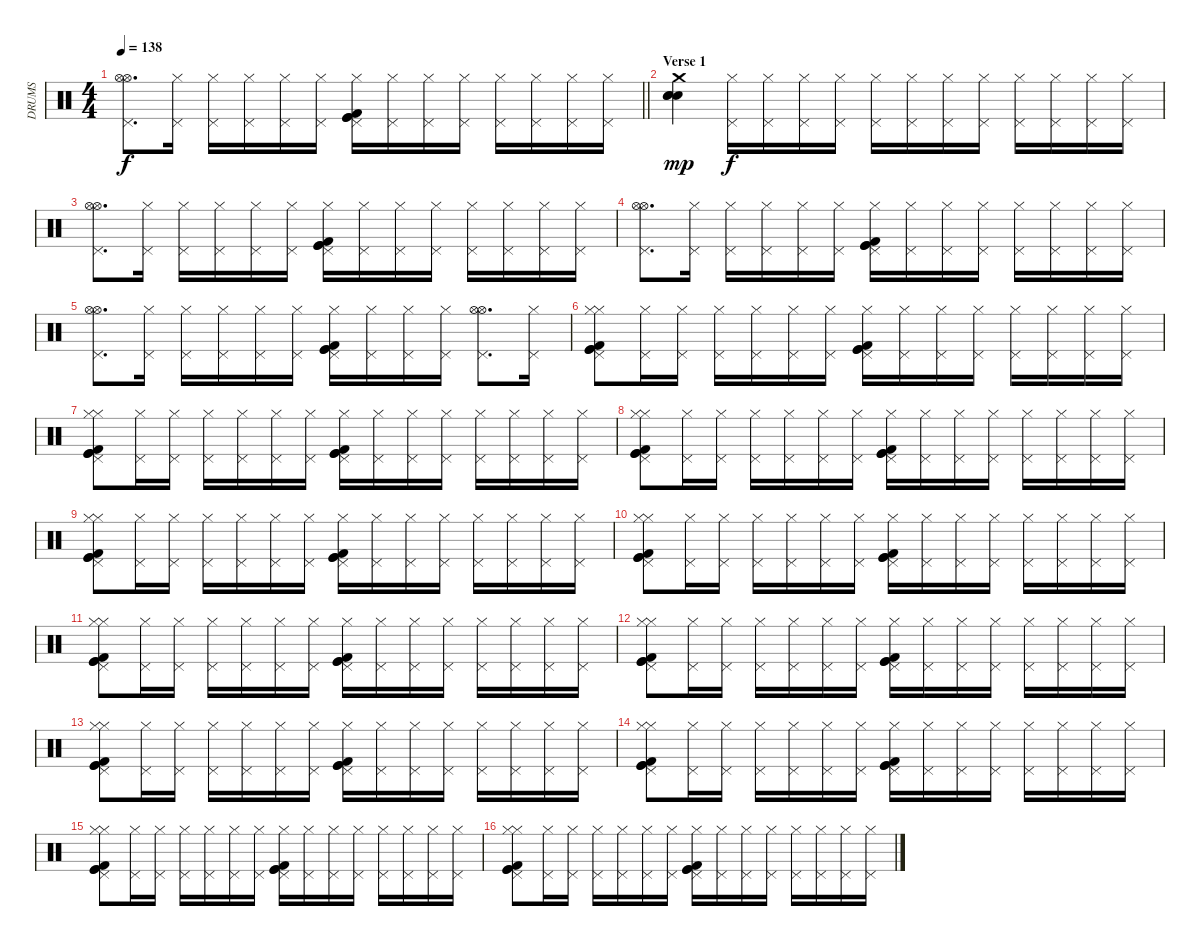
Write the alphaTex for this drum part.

\track ("DRUMS" "DRUMS") {instrument percussion}
\staff {score}
\articulation defaults
\ts (4 4)
\tempo 138
\clef neutral
\barLineRight lightlight
\ks c
("Hi-Hat (open)" "Pedal Hi-Hat (hit)" "Hi-Hat (open)").8{d dy f} ("Hi-Hat (closed)" "Pedal Hi-Hat (hit)").16 ("Hi-Hat (closed)" "Pedal Hi-Hat (hit)").16 ("Hi-Hat (closed)" "Pedal Hi-Hat (hit)").16 ("Hi-Hat (closed)" "Pedal Hi-Hat (hit)").16 ("Hi-Hat (closed)" "Pedal Hi-Hat (hit)").16 ("Hi-Hat (closed)" "Pedal Hi-Hat (hit)" "Kick (hit) 2" "Kick (hit)" "Kick (hit)").16 ("Hi-Hat (closed)" "Pedal Hi-Hat (hit)").16 ("Hi-Hat (closed)" "Pedal Hi-Hat (hit)").16 ("Hi-Hat (closed)" "Pedal Hi-Hat (hit)").16 ("Hi-Hat (closed)" "Pedal Hi-Hat (hit)").16 ("Hi-Hat (closed)" "Pedal Hi-Hat (hit)").16 ("Hi-Hat (closed)" "Pedal Hi-Hat (hit)").16 ("Hi-Hat (closed)" "Pedal Hi-Hat (hit)").16 |
\section ("" "Verse 1")
("Electric Snare (hit)" "Snare (hit) 2" "Snare (hit) 2" "Crash medium (hit)").4{dy mp volume 5} ("Hi-Hat (closed)" "Pedal Hi-Hat (hit)").16{dy f} ("Hi-Hat (closed)" "Pedal Hi-Hat (hit)").16 ("Hi-Hat (closed)" "Pedal Hi-Hat (hit)").16 ("Hi-Hat (closed)" "Pedal Hi-Hat (hit)").16 ("Hi-Hat (closed)" "Pedal Hi-Hat (hit)").16 ("Hi-Hat (closed)" "Pedal Hi-Hat (hit)").16 ("Hi-Hat (closed)" "Pedal Hi-Hat (hit)").16 ("Hi-Hat (closed)" "Pedal Hi-Hat (hit)").16 ("Hi-Hat (closed)" "Pedal Hi-Hat (hit)").16 ("Hi-Hat (closed)" "Pedal Hi-Hat (hit)").16 ("Hi-Hat (closed)" "Pedal Hi-Hat (hit)").16 ("Hi-Hat (closed)" "Pedal Hi-Hat (hit)").16 |
("Hi-Hat (open)" "Pedal Hi-Hat (hit)" "Hi-Hat (open)").8{d} ("Hi-Hat (closed)" "Pedal Hi-Hat (hit)").16 ("Hi-Hat (closed)" "Pedal Hi-Hat (hit)").16 ("Hi-Hat (closed)" "Pedal Hi-Hat (hit)").16 ("Hi-Hat (closed)" "Pedal Hi-Hat (hit)").16 ("Hi-Hat (closed)" "Pedal Hi-Hat (hit)").16 ("Hi-Hat (closed)" "Pedal Hi-Hat (hit)" "Kick (hit) 2" "Kick (hit)" "Kick (hit)").16 ("Hi-Hat (closed)" "Pedal Hi-Hat (hit)").16 ("Hi-Hat (closed)" "Pedal Hi-Hat (hit)").16 ("Hi-Hat (closed)" "Pedal Hi-Hat (hit)").16 ("Hi-Hat (closed)" "Pedal Hi-Hat (hit)").16 ("Hi-Hat (closed)" "Pedal Hi-Hat (hit)").16 ("Hi-Hat (closed)" "Pedal Hi-Hat (hit)").16 ("Hi-Hat (closed)" "Pedal Hi-Hat (hit)").16 |
("Hi-Hat (open)" "Pedal Hi-Hat (hit)" "Hi-Hat (open)").8{d} ("Hi-Hat (closed)" "Pedal Hi-Hat (hit)").16 ("Hi-Hat (closed)" "Pedal Hi-Hat (hit)").16 ("Hi-Hat (closed)" "Pedal Hi-Hat (hit)").16 ("Hi-Hat (closed)" "Pedal Hi-Hat (hit)").16 ("Hi-Hat (closed)" "Pedal Hi-Hat (hit)").16 ("Hi-Hat (closed)" "Pedal Hi-Hat (hit)" "Kick (hit) 2" "Kick (hit)" "Kick (hit)").16 ("Hi-Hat (closed)" "Pedal Hi-Hat (hit)").16 ("Hi-Hat (closed)" "Pedal Hi-Hat (hit)").16 ("Hi-Hat (closed)" "Pedal Hi-Hat (hit)").16 ("Hi-Hat (closed)" "Pedal Hi-Hat (hit)").16 ("Hi-Hat (closed)" "Pedal Hi-Hat (hit)").16 ("Hi-Hat (closed)" "Pedal Hi-Hat (hit)").16 ("Hi-Hat (closed)" "Pedal Hi-Hat (hit)").16 |
("Hi-Hat (open)" "Pedal Hi-Hat (hit)" "Hi-Hat (open)").8{d} ("Hi-Hat (closed)" "Pedal Hi-Hat (hit)").16 ("Hi-Hat (closed)" "Pedal Hi-Hat (hit)").16 ("Hi-Hat (closed)" "Pedal Hi-Hat (hit)").16 ("Hi-Hat (closed)" "Pedal Hi-Hat (hit)").16 ("Hi-Hat (closed)" "Pedal Hi-Hat (hit)").16 ("Hi-Hat (closed)" "Pedal Hi-Hat (hit)" "Kick (hit) 2" "Kick (hit)" "Kick (hit)").16 ("Hi-Hat (closed)" "Pedal Hi-Hat (hit)").16 ("Hi-Hat (closed)" "Pedal Hi-Hat (hit)").16 ("Hi-Hat (closed)" "Pedal Hi-Hat (hit)").16 ("Hi-Hat (open)" "Pedal Hi-Hat (hit)" "Hi-Hat (open)").8{d} ("Hi-Hat (closed)" "Pedal Hi-Hat (hit)").16 |
("Hi-Hat (closed)" "Pedal Hi-Hat (hit)" "Hi-Hat (closed)" "Kick (hit) 2" "Kick (hit)" "Kick (hit)").8 ("Hi-Hat (closed)" "Pedal Hi-Hat (hit)").16 ("Hi-Hat (closed)" "Pedal Hi-Hat (hit)").16 ("Hi-Hat (closed)" "Pedal Hi-Hat (hit)").16 ("Hi-Hat (closed)" "Pedal Hi-Hat (hit)").16 ("Hi-Hat (closed)" "Pedal Hi-Hat (hit)").16 ("Hi-Hat (closed)" "Pedal Hi-Hat (hit)").16 ("Hi-Hat (closed)" "Pedal Hi-Hat (hit)" "Kick (hit) 2" "Kick (hit)" "Kick (hit)").16 ("Hi-Hat (closed)" "Pedal Hi-Hat (hit)").16 ("Hi-Hat (closed)" "Pedal Hi-Hat (hit)").16 ("Hi-Hat (closed)" "Pedal Hi-Hat (hit)").16 ("Hi-Hat (closed)" "Pedal Hi-Hat (hit)").16 ("Hi-Hat (closed)" "Pedal Hi-Hat (hit)").16 ("Hi-Hat (closed)" "Pedal Hi-Hat (hit)").16 ("Hi-Hat (closed)" "Pedal Hi-Hat (hit)").16 |
("Hi-Hat (closed)" "Pedal Hi-Hat (hit)" "Hi-Hat (closed)" "Kick (hit) 2" "Kick (hit)" "Kick (hit)").8 ("Hi-Hat (closed)" "Pedal Hi-Hat (hit)").16 ("Hi-Hat (closed)" "Pedal Hi-Hat (hit)").16 ("Hi-Hat (closed)" "Pedal Hi-Hat (hit)").16 ("Hi-Hat (closed)" "Pedal Hi-Hat (hit)").16 ("Hi-Hat (closed)" "Pedal Hi-Hat (hit)").16 ("Hi-Hat (closed)" "Pedal Hi-Hat (hit)").16 ("Hi-Hat (closed)" "Pedal Hi-Hat (hit)" "Kick (hit) 2" "Kick (hit)" "Kick (hit)").16 ("Hi-Hat (closed)" "Pedal Hi-Hat (hit)").16 ("Hi-Hat (closed)" "Pedal Hi-Hat (hit)").16 ("Hi-Hat (closed)" "Pedal Hi-Hat (hit)").16 ("Hi-Hat (closed)" "Pedal Hi-Hat (hit)").16 ("Hi-Hat (closed)" "Pedal Hi-Hat (hit)").16 ("Hi-Hat (closed)" "Pedal Hi-Hat (hit)").16 ("Hi-Hat (closed)" "Pedal Hi-Hat (hit)").16 |
("Hi-Hat (closed)" "Pedal Hi-Hat (hit)" "Hi-Hat (closed)" "Kick (hit) 2" "Kick (hit)" "Kick (hit)").8 ("Hi-Hat (closed)" "Pedal Hi-Hat (hit)").16 ("Hi-Hat (closed)" "Pedal Hi-Hat (hit)").16 ("Hi-Hat (closed)" "Pedal Hi-Hat (hit)").16 ("Hi-Hat (closed)" "Pedal Hi-Hat (hit)").16 ("Hi-Hat (closed)" "Pedal Hi-Hat (hit)").16 ("Hi-Hat (closed)" "Pedal Hi-Hat (hit)").16 ("Hi-Hat (closed)" "Pedal Hi-Hat (hit)" "Kick (hit) 2" "Kick (hit)" "Kick (hit)").16 ("Hi-Hat (closed)" "Pedal Hi-Hat (hit)").16 ("Hi-Hat (closed)" "Pedal Hi-Hat (hit)").16 ("Hi-Hat (closed)" "Pedal Hi-Hat (hit)").16 ("Hi-Hat (closed)" "Pedal Hi-Hat (hit)").16 ("Hi-Hat (closed)" "Pedal Hi-Hat (hit)").16 ("Hi-Hat (closed)" "Pedal Hi-Hat (hit)").16 ("Hi-Hat (closed)" "Pedal Hi-Hat (hit)").16 |
("Hi-Hat (closed)" "Pedal Hi-Hat (hit)" "Hi-Hat (closed)" "Kick (hit) 2" "Kick (hit)" "Kick (hit)").8 ("Hi-Hat (closed)" "Pedal Hi-Hat (hit)").16 ("Hi-Hat (closed)" "Pedal Hi-Hat (hit)").16 ("Hi-Hat (closed)" "Pedal Hi-Hat (hit)").16 ("Hi-Hat (closed)" "Pedal Hi-Hat (hit)").16 ("Hi-Hat (closed)" "Pedal Hi-Hat (hit)").16 ("Hi-Hat (closed)" "Pedal Hi-Hat (hit)").16 ("Hi-Hat (closed)" "Pedal Hi-Hat (hit)" "Kick (hit) 2" "Kick (hit)" "Kick (hit)").16 ("Hi-Hat (closed)" "Pedal Hi-Hat (hit)").16 ("Hi-Hat (closed)" "Pedal Hi-Hat (hit)").16 ("Hi-Hat (closed)" "Pedal Hi-Hat (hit)").16 ("Hi-Hat (closed)" "Pedal Hi-Hat (hit)").16 ("Hi-Hat (closed)" "Pedal Hi-Hat (hit)").16 ("Hi-Hat (closed)" "Pedal Hi-Hat (hit)").16 ("Hi-Hat (closed)" "Pedal Hi-Hat (hit)").16 |
("Hi-Hat (closed)" "Pedal Hi-Hat (hit)" "Hi-Hat (closed)" "Kick (hit) 2" "Kick (hit)" "Kick (hit)").8 ("Hi-Hat (closed)" "Pedal Hi-Hat (hit)").16 ("Hi-Hat (closed)" "Pedal Hi-Hat (hit)").16 ("Hi-Hat (closed)" "Pedal Hi-Hat (hit)").16 ("Hi-Hat (closed)" "Pedal Hi-Hat (hit)").16 ("Hi-Hat (closed)" "Pedal Hi-Hat (hit)").16 ("Hi-Hat (closed)" "Pedal Hi-Hat (hit)").16 ("Hi-Hat (closed)" "Pedal Hi-Hat (hit)" "Kick (hit) 2" "Kick (hit)" "Kick (hit)").16 ("Hi-Hat (closed)" "Pedal Hi-Hat (hit)").16 ("Hi-Hat (closed)" "Pedal Hi-Hat (hit)").16 ("Hi-Hat (closed)" "Pedal Hi-Hat (hit)").16 ("Hi-Hat (closed)" "Pedal Hi-Hat (hit)").16 ("Hi-Hat (closed)" "Pedal Hi-Hat (hit)").16 ("Hi-Hat (closed)" "Pedal Hi-Hat (hit)").16 ("Hi-Hat (closed)" "Pedal Hi-Hat (hit)").16 |
("Hi-Hat (closed)" "Pedal Hi-Hat (hit)" "Hi-Hat (closed)" "Kick (hit) 2" "Kick (hit)" "Kick (hit)").8 ("Hi-Hat (closed)" "Pedal Hi-Hat (hit)").16 ("Hi-Hat (closed)" "Pedal Hi-Hat (hit)").16 ("Hi-Hat (closed)" "Pedal Hi-Hat (hit)").16 ("Hi-Hat (closed)" "Pedal Hi-Hat (hit)").16 ("Hi-Hat (closed)" "Pedal Hi-Hat (hit)").16 ("Hi-Hat (closed)" "Pedal Hi-Hat (hit)").16 ("Hi-Hat (closed)" "Pedal Hi-Hat (hit)" "Kick (hit) 2" "Kick (hit)" "Kick (hit)").16 ("Hi-Hat (closed)" "Pedal Hi-Hat (hit)").16 ("Hi-Hat (closed)" "Pedal Hi-Hat (hit)").16 ("Hi-Hat (closed)" "Pedal Hi-Hat (hit)").16 ("Hi-Hat (closed)" "Pedal Hi-Hat (hit)").16 ("Hi-Hat (closed)" "Pedal Hi-Hat (hit)").16 ("Hi-Hat (closed)" "Pedal Hi-Hat (hit)").16 ("Hi-Hat (closed)" "Pedal Hi-Hat (hit)").16 |
("Hi-Hat (closed)" "Pedal Hi-Hat (hit)" "Hi-Hat (closed)" "Kick (hit) 2" "Kick (hit)" "Kick (hit)").8 ("Hi-Hat (closed)" "Pedal Hi-Hat (hit)").16 ("Hi-Hat (closed)" "Pedal Hi-Hat (hit)").16 ("Hi-Hat (closed)" "Pedal Hi-Hat (hit)").16 ("Hi-Hat (closed)" "Pedal Hi-Hat (hit)").16 ("Hi-Hat (closed)" "Pedal Hi-Hat (hit)").16 ("Hi-Hat (closed)" "Pedal Hi-Hat (hit)").16 ("Hi-Hat (closed)" "Pedal Hi-Hat (hit)" "Kick (hit) 2" "Kick (hit)" "Kick (hit)").16 ("Hi-Hat (closed)" "Pedal Hi-Hat (hit)").16 ("Hi-Hat (closed)" "Pedal Hi-Hat (hit)").16 ("Hi-Hat (closed)" "Pedal Hi-Hat (hit)").16 ("Hi-Hat (closed)" "Pedal Hi-Hat (hit)").16 ("Hi-Hat (closed)" "Pedal Hi-Hat (hit)").16 ("Hi-Hat (closed)" "Pedal Hi-Hat (hit)").16 ("Hi-Hat (closed)" "Pedal Hi-Hat (hit)").16 |
("Hi-Hat (closed)" "Pedal Hi-Hat (hit)" "Hi-Hat (closed)" "Kick (hit) 2" "Kick (hit)" "Kick (hit)").8 ("Hi-Hat (closed)" "Pedal Hi-Hat (hit)").16 ("Hi-Hat (closed)" "Pedal Hi-Hat (hit)").16 ("Hi-Hat (closed)" "Pedal Hi-Hat (hit)").16 ("Hi-Hat (closed)" "Pedal Hi-Hat (hit)").16 ("Hi-Hat (closed)" "Pedal Hi-Hat (hit)").16 ("Hi-Hat (closed)" "Pedal Hi-Hat (hit)").16 ("Hi-Hat (closed)" "Pedal Hi-Hat (hit)" "Kick (hit) 2" "Kick (hit)" "Kick (hit)").16 ("Hi-Hat (closed)" "Pedal Hi-Hat (hit)").16 ("Hi-Hat (closed)" "Pedal Hi-Hat (hit)").16 ("Hi-Hat (closed)" "Pedal Hi-Hat (hit)").16 ("Hi-Hat (closed)" "Pedal Hi-Hat (hit)").16 ("Hi-Hat (closed)" "Pedal Hi-Hat (hit)").16 ("Hi-Hat (closed)" "Pedal Hi-Hat (hit)").16 ("Hi-Hat (closed)" "Pedal Hi-Hat (hit)").16 |
("Hi-Hat (closed)" "Pedal Hi-Hat (hit)" "Hi-Hat (closed)" "Kick (hit) 2" "Kick (hit)" "Kick (hit)").8 ("Hi-Hat (closed)" "Pedal Hi-Hat (hit)").16 ("Hi-Hat (closed)" "Pedal Hi-Hat (hit)").16 ("Hi-Hat (closed)" "Pedal Hi-Hat (hit)").16 ("Hi-Hat (closed)" "Pedal Hi-Hat (hit)").16 ("Hi-Hat (closed)" "Pedal Hi-Hat (hit)").16 ("Hi-Hat (closed)" "Pedal Hi-Hat (hit)").16 ("Hi-Hat (closed)" "Pedal Hi-Hat (hit)" "Kick (hit) 2" "Kick (hit)" "Kick (hit)").16 ("Hi-Hat (closed)" "Pedal Hi-Hat (hit)").16 ("Hi-Hat (closed)" "Pedal Hi-Hat (hit)").16 ("Hi-Hat (closed)" "Pedal Hi-Hat (hit)").16 ("Hi-Hat (closed)" "Pedal Hi-Hat (hit)").16 ("Hi-Hat (closed)" "Pedal Hi-Hat (hit)").16 ("Hi-Hat (closed)" "Pedal Hi-Hat (hit)").16 ("Hi-Hat (closed)" "Pedal Hi-Hat (hit)").16 |
("Hi-Hat (closed)" "Pedal Hi-Hat (hit)" "Hi-Hat (closed)" "Kick (hit) 2" "Kick (hit)" "Kick (hit)").8 ("Hi-Hat (closed)" "Pedal Hi-Hat (hit)").16 ("Hi-Hat (closed)" "Pedal Hi-Hat (hit)").16 ("Hi-Hat (closed)" "Pedal Hi-Hat (hit)").16 ("Hi-Hat (closed)" "Pedal Hi-Hat (hit)").16 ("Hi-Hat (closed)" "Pedal Hi-Hat (hit)").16 ("Hi-Hat (closed)" "Pedal Hi-Hat (hit)").16 ("Hi-Hat (closed)" "Pedal Hi-Hat (hit)" "Kick (hit) 2" "Kick (hit)" "Kick (hit)").16 ("Hi-Hat (closed)" "Pedal Hi-Hat (hit)").16 ("Hi-Hat (closed)" "Pedal Hi-Hat (hit)").16 ("Hi-Hat (closed)" "Pedal Hi-Hat (hit)").16 ("Hi-Hat (closed)" "Pedal Hi-Hat (hit)").16 ("Hi-Hat (closed)" "Pedal Hi-Hat (hit)").16 ("Hi-Hat (closed)" "Pedal Hi-Hat (hit)").16 ("Hi-Hat (closed)" "Pedal Hi-Hat (hit)").16 |
("Hi-Hat (closed)" "Pedal Hi-Hat (hit)" "Hi-Hat (closed)" "Kick (hit) 2" "Kick (hit)" "Kick (hit)").8 ("Hi-Hat (closed)" "Pedal Hi-Hat (hit)").16 ("Hi-Hat (closed)" "Pedal Hi-Hat (hit)").16 ("Hi-Hat (closed)" "Pedal Hi-Hat (hit)").16 ("Hi-Hat (closed)" "Pedal Hi-Hat (hit)").16 ("Hi-Hat (closed)" "Pedal Hi-Hat (hit)").16 ("Hi-Hat (closed)" "Pedal Hi-Hat (hit)").16 ("Hi-Hat (closed)" "Pedal Hi-Hat (hit)" "Kick (hit) 2" "Kick (hit)" "Kick (hit)").16 ("Hi-Hat (closed)" "Pedal Hi-Hat (hit)").16 ("Hi-Hat (closed)" "Pedal Hi-Hat (hit)").16 ("Hi-Hat (closed)" "Pedal Hi-Hat (hit)").16 ("Hi-Hat (closed)" "Pedal Hi-Hat (hit)").16 ("Hi-Hat (closed)" "Pedal Hi-Hat (hit)").16 ("Hi-Hat (closed)" "Pedal Hi-Hat (hit)").16 ("Hi-Hat (closed)" "Pedal Hi-Hat (hit)").16
